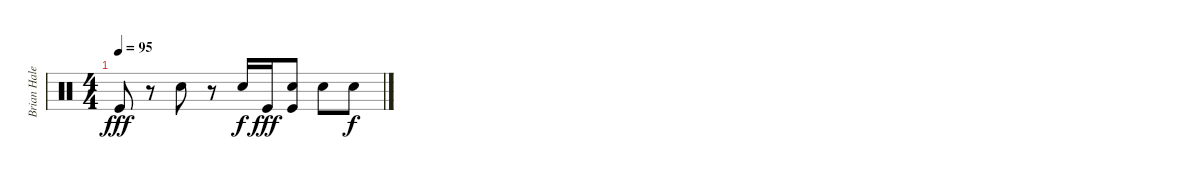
\track ("Brian Haley" "Brian Hale") {instrument percussion}
\staff {score}
\articulation defaults
\ts (4 4)
\tempo 95
\clef neutral
\ks c "Kick (hit)".8{dy fff}
r.8 "Hand Clap (hit)".8 r.8 "Snare (hit) 2".16{dy f} "Kick (hit)".16{dy fff} ("Kick (hit)" "Snare (hit) 2").8 "Hand Clap (hit)".8 "Snare (hit) 2".8{dy f}
